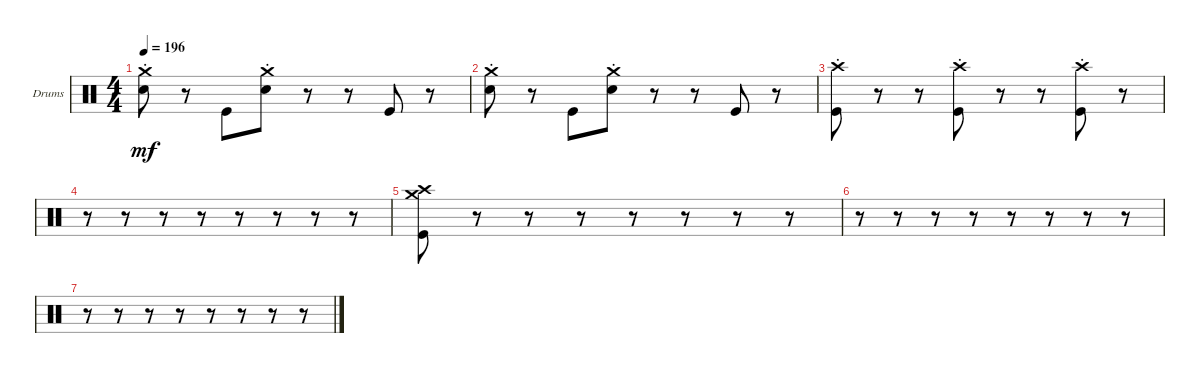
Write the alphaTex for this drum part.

\defaultSystemsLayout 4
\bracketExtendMode groupsimilarinstruments
\firstSystemTrackNameOrientation horizontal
\otherSystemsTrackNameOrientation horizontal
\track ("Drumkit" "Drums") {instrument percussion}
\staff {score}
\articulation defaults
\ts (4 4)
\tempo 196
\clef neutral
\ks c
("Snare (hit) 2" "Crash medium (hit)"{st}).8{dy mf} r.8 "Kick (hit)".8 ("Snare (hit) 2" "Crash medium (hit)"{st}).8 r.8 r.8 "Kick (hit)".8 r.8 |
("Snare (hit) 2" "Crash medium (hit)"{st}).8 r.8 "Kick (hit)".8 ("Snare (hit) 2" "Crash medium (hit)"{st}).8 r.8 r.8 "Kick (hit)".8 r.8 |
("Kick (hit)" "Crash high (hit)"{st}).8 r.8 r.8 ("Kick (hit)" "Crash high (hit)"{st}).8 r.8 r.8 ("Kick (hit)" "Crash high (hit)"{st}).8 r.8 |
r.8 r.8 r.8 r.8 r.8 r.8 r.8 r.8 |
("Kick (hit)" "Crash medium (hit)" "Crash high (hit)").8 r.8 r.8 r.8 r.8 r.8 r.8 r.8 |
r.8 r.8 r.8 r.8 r.8 r.8 r.8 r.8 |
r.8 r.8 r.8 r.8 r.8 r.8 r.8 r.8
